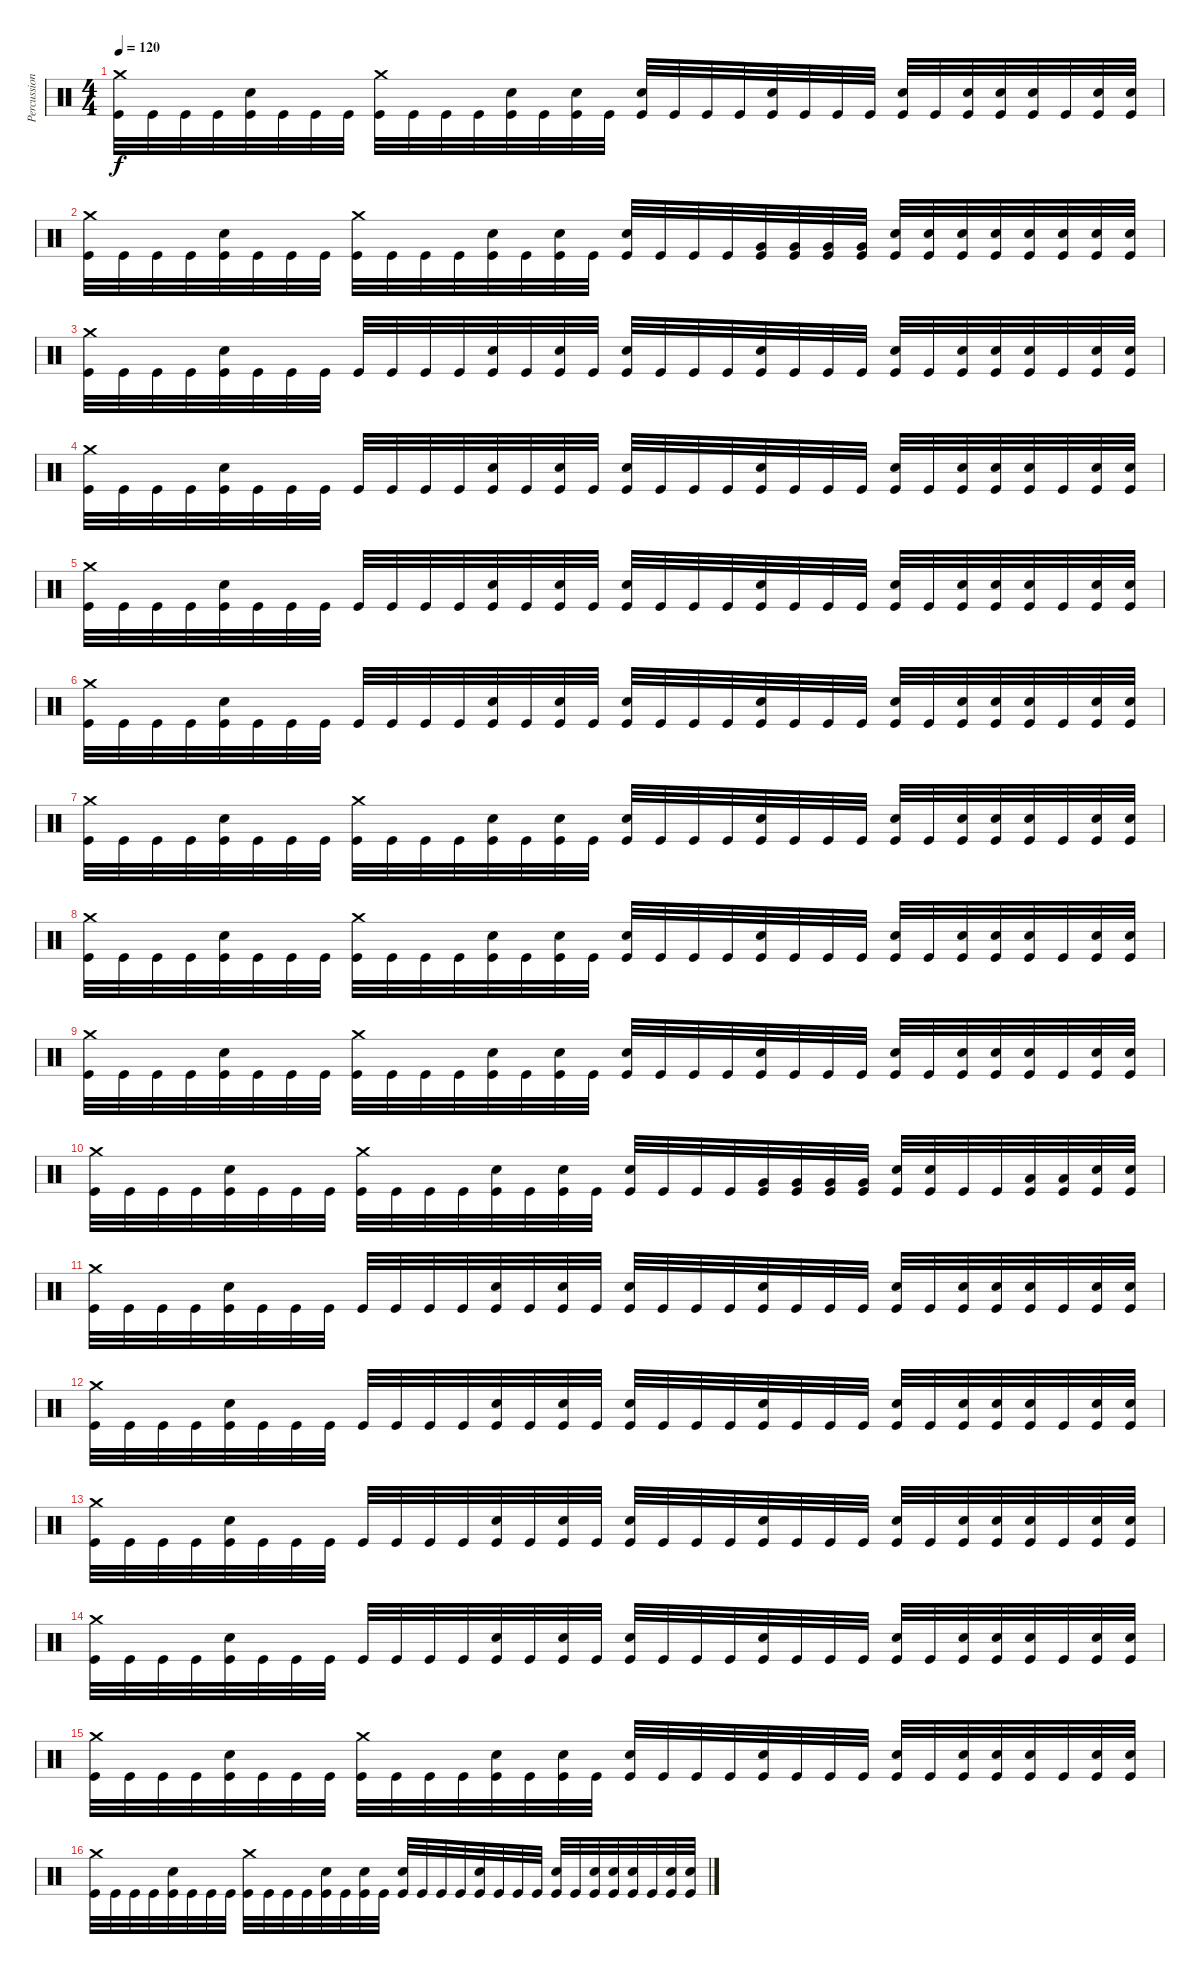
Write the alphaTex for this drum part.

\track ("Percussion" "Percussion") {instrument percussion}
\staff {score}
\articulation defaults
\ts (4 4)
\tempo 120
\clef neutral
\ks c
("Crash medium (hit)" "Kick (hit)").32{dy f} "Kick (hit)".32 "Kick (hit)".32 "Kick (hit)".32 ("Electric Snare (hit)" "Kick (hit)").32 "Kick (hit)".32 "Kick (hit)".32 "Kick (hit)".32 ("Crash medium (hit)" "Kick (hit)").32 "Kick (hit)".32 "Kick (hit)".32 "Kick (hit)".32 ("Electric Snare (hit)" "Kick (hit)").32 "Kick (hit)".32 ("Electric Snare (hit)" "Kick (hit)").32 "Kick (hit)".32 ("Electric Snare (hit)" "Kick (hit)").32 "Kick (hit)".32 "Kick (hit)".32 "Kick (hit)".32 ("Electric Snare (hit)" "Kick (hit)").32 "Kick (hit)".32 "Kick (hit)".32 "Kick (hit)".32 ("Electric Snare (hit)" "Kick (hit)").32 "Kick (hit)".32 ("Electric Snare (hit)" "Kick (hit)").32 ("Electric Snare (hit)" "Kick (hit)").32 ("Electric Snare (hit)" "Kick (hit)").32 "Kick (hit)".32 ("Electric Snare (hit)" "Kick (hit)").32 ("Electric Snare (hit)" "Kick (hit)").32 |
("Crash medium (hit)" "Kick (hit)").32 "Kick (hit)".32 "Kick (hit)".32 "Kick (hit)".32 ("Electric Snare (hit)" "Kick (hit)").32 "Kick (hit)".32 "Kick (hit)".32 "Kick (hit)".32 ("Crash medium (hit)" "Kick (hit)").32 "Kick (hit)".32 "Kick (hit)".32 "Kick (hit)".32 ("Electric Snare (hit)" "Kick (hit)").32 "Kick (hit)".32 ("Electric Snare (hit)" "Kick (hit)").32 "Kick (hit)".32 ("Electric Snare (hit)" "Kick (hit)").32 "Kick (hit)".32 "Kick (hit)".32 "Kick (hit)".32 ("Very Low Tom (hit)" "Kick (hit)").32 ("Very Low Tom (hit)" "Kick (hit)").32 ("Very Low Tom (hit)" "Kick (hit)").32 ("Very Low Tom (hit)" "Kick (hit)").32 ("Electric Snare (hit)" "Kick (hit)").32 ("Electric Snare (hit)" "Kick (hit)").32 ("Electric Snare (hit)" "Kick (hit)").32 ("Electric Snare (hit)" "Kick (hit)").32 ("Electric Snare (hit)" "Kick (hit)").32 ("Electric Snare (hit)" "Kick (hit)").32 ("Electric Snare (hit)" "Kick (hit)").32 ("Electric Snare (hit)" "Kick (hit)").32 |
("Crash medium (hit)" "Kick (hit)").32 "Kick (hit)".32 "Kick (hit)".32 "Kick (hit)".32 ("Electric Snare (hit)" "Kick (hit)").32 "Kick (hit)".32 "Kick (hit)".32 "Kick (hit)".32 "Kick (hit)".32 "Kick (hit)".32 "Kick (hit)".32 "Kick (hit)".32 ("Electric Snare (hit)" "Kick (hit)").32 "Kick (hit)".32 ("Electric Snare (hit)" "Kick (hit)").32 "Kick (hit)".32 ("Electric Snare (hit)" "Kick (hit)").32 "Kick (hit)".32 "Kick (hit)".32 "Kick (hit)".32 ("Electric Snare (hit)" "Kick (hit)").32 "Kick (hit)".32 "Kick (hit)".32 "Kick (hit)".32 ("Electric Snare (hit)" "Kick (hit)").32 "Kick (hit)".32 ("Electric Snare (hit)" "Kick (hit)").32 ("Electric Snare (hit)" "Kick (hit)").32 ("Electric Snare (hit)" "Kick (hit)").32 "Kick (hit)".32 ("Electric Snare (hit)" "Kick (hit)").32 ("Electric Snare (hit)" "Kick (hit)").32 |
("Crash medium (hit)" "Kick (hit)").32 "Kick (hit)".32 "Kick (hit)".32 "Kick (hit)".32 ("Electric Snare (hit)" "Kick (hit)").32 "Kick (hit)".32 "Kick (hit)".32 "Kick (hit)".32 "Kick (hit)".32 "Kick (hit)".32 "Kick (hit)".32 "Kick (hit)".32 ("Electric Snare (hit)" "Kick (hit)").32 "Kick (hit)".32 ("Electric Snare (hit)" "Kick (hit)").32 "Kick (hit)".32 ("Electric Snare (hit)" "Kick (hit)").32 "Kick (hit)".32 "Kick (hit)".32 "Kick (hit)".32 ("Electric Snare (hit)" "Kick (hit)").32 "Kick (hit)".32 "Kick (hit)".32 "Kick (hit)".32 ("Electric Snare (hit)" "Kick (hit)").32 "Kick (hit)".32 ("Electric Snare (hit)" "Kick (hit)").32 ("Electric Snare (hit)" "Kick (hit)").32 ("Electric Snare (hit)" "Kick (hit)").32 "Kick (hit)".32 ("Electric Snare (hit)" "Kick (hit)").32 ("Electric Snare (hit)" "Kick (hit)").32 |
("Crash medium (hit)" "Kick (hit)").32 "Kick (hit)".32 "Kick (hit)".32 "Kick (hit)".32 ("Electric Snare (hit)" "Kick (hit)").32 "Kick (hit)".32 "Kick (hit)".32 "Kick (hit)".32 "Kick (hit)".32 "Kick (hit)".32 "Kick (hit)".32 "Kick (hit)".32 ("Electric Snare (hit)" "Kick (hit)").32 "Kick (hit)".32 ("Electric Snare (hit)" "Kick (hit)").32 "Kick (hit)".32 ("Electric Snare (hit)" "Kick (hit)").32 "Kick (hit)".32 "Kick (hit)".32 "Kick (hit)".32 ("Electric Snare (hit)" "Kick (hit)").32 "Kick (hit)".32 "Kick (hit)".32 "Kick (hit)".32 ("Electric Snare (hit)" "Kick (hit)").32 "Kick (hit)".32 ("Electric Snare (hit)" "Kick (hit)").32 ("Electric Snare (hit)" "Kick (hit)").32 ("Electric Snare (hit)" "Kick (hit)").32 "Kick (hit)".32 ("Electric Snare (hit)" "Kick (hit)").32 ("Electric Snare (hit)" "Kick (hit)").32 |
("Crash medium (hit)" "Kick (hit)").32 "Kick (hit)".32 "Kick (hit)".32 "Kick (hit)".32 ("Electric Snare (hit)" "Kick (hit)").32 "Kick (hit)".32 "Kick (hit)".32 "Kick (hit)".32 "Kick (hit)".32 "Kick (hit)".32 "Kick (hit)".32 "Kick (hit)".32 ("Electric Snare (hit)" "Kick (hit)").32 "Kick (hit)".32 ("Electric Snare (hit)" "Kick (hit)").32 "Kick (hit)".32 ("Electric Snare (hit)" "Kick (hit)").32 "Kick (hit)".32 "Kick (hit)".32 "Kick (hit)".32 ("Electric Snare (hit)" "Kick (hit)").32 "Kick (hit)".32 "Kick (hit)".32 "Kick (hit)".32 ("Electric Snare (hit)" "Kick (hit)").32 "Kick (hit)".32 ("Electric Snare (hit)" "Kick (hit)").32 ("Electric Snare (hit)" "Kick (hit)").32 ("Electric Snare (hit)" "Kick (hit)").32 "Kick (hit)".32 ("Electric Snare (hit)" "Kick (hit)").32 ("Electric Snare (hit)" "Kick (hit)").32 |
("Crash medium (hit)" "Kick (hit)").32 "Kick (hit)".32 "Kick (hit)".32 "Kick (hit)".32 ("Electric Snare (hit)" "Kick (hit)").32 "Kick (hit)".32 "Kick (hit)".32 "Kick (hit)".32 ("Crash medium (hit)" "Kick (hit)").32 "Kick (hit)".32 "Kick (hit)".32 "Kick (hit)".32 ("Electric Snare (hit)" "Kick (hit)").32 "Kick (hit)".32 ("Electric Snare (hit)" "Kick (hit)").32 "Kick (hit)".32 ("Electric Snare (hit)" "Kick (hit)").32 "Kick (hit)".32 "Kick (hit)".32 "Kick (hit)".32 ("Electric Snare (hit)" "Kick (hit)").32 "Kick (hit)".32 "Kick (hit)".32 "Kick (hit)".32 ("Electric Snare (hit)" "Kick (hit)").32 "Kick (hit)".32 ("Electric Snare (hit)" "Kick (hit)").32 ("Electric Snare (hit)" "Kick (hit)").32 ("Electric Snare (hit)" "Kick (hit)").32 "Kick (hit)".32 ("Electric Snare (hit)" "Kick (hit)").32 ("Electric Snare (hit)" "Kick (hit)").32 |
("Crash medium (hit)" "Kick (hit)").32 "Kick (hit)".32 "Kick (hit)".32 "Kick (hit)".32 ("Electric Snare (hit)" "Kick (hit)").32 "Kick (hit)".32 "Kick (hit)".32 "Kick (hit)".32 ("Crash medium (hit)" "Kick (hit)").32 "Kick (hit)".32 "Kick (hit)".32 "Kick (hit)".32 ("Electric Snare (hit)" "Kick (hit)").32 "Kick (hit)".32 ("Electric Snare (hit)" "Kick (hit)").32 "Kick (hit)".32 ("Electric Snare (hit)" "Kick (hit)").32 "Kick (hit)".32 "Kick (hit)".32 "Kick (hit)".32 ("Electric Snare (hit)" "Kick (hit)").32 "Kick (hit)".32 "Kick (hit)".32 "Kick (hit)".32 ("Electric Snare (hit)" "Kick (hit)").32 "Kick (hit)".32 ("Electric Snare (hit)" "Kick (hit)").32 ("Electric Snare (hit)" "Kick (hit)").32 ("Electric Snare (hit)" "Kick (hit)").32 "Kick (hit)".32 ("Electric Snare (hit)" "Kick (hit)").32 ("Electric Snare (hit)" "Kick (hit)").32 |
("Crash medium (hit)" "Kick (hit)").32 "Kick (hit)".32 "Kick (hit)".32 "Kick (hit)".32 ("Electric Snare (hit)" "Kick (hit)").32 "Kick (hit)".32 "Kick (hit)".32 "Kick (hit)".32 ("Crash medium (hit)" "Kick (hit)").32 "Kick (hit)".32 "Kick (hit)".32 "Kick (hit)".32 ("Electric Snare (hit)" "Kick (hit)").32 "Kick (hit)".32 ("Electric Snare (hit)" "Kick (hit)").32 "Kick (hit)".32 ("Electric Snare (hit)" "Kick (hit)").32 "Kick (hit)".32 "Kick (hit)".32 "Kick (hit)".32 ("Electric Snare (hit)" "Kick (hit)").32 "Kick (hit)".32 "Kick (hit)".32 "Kick (hit)".32 ("Electric Snare (hit)" "Kick (hit)").32 "Kick (hit)".32 ("Electric Snare (hit)" "Kick (hit)").32 ("Electric Snare (hit)" "Kick (hit)").32 ("Electric Snare (hit)" "Kick (hit)").32 "Kick (hit)".32 ("Electric Snare (hit)" "Kick (hit)").32 ("Electric Snare (hit)" "Kick (hit)").32 |
("Crash medium (hit)" "Kick (hit)").32 "Kick (hit)".32 "Kick (hit)".32 "Kick (hit)".32 ("Electric Snare (hit)" "Kick (hit)").32 "Kick (hit)".32 "Kick (hit)".32 "Kick (hit)".32 ("Crash medium (hit)" "Kick (hit)").32 "Kick (hit)".32 "Kick (hit)".32 "Kick (hit)".32 ("Electric Snare (hit)" "Kick (hit)").32 "Kick (hit)".32 ("Electric Snare (hit)" "Kick (hit)").32 "Kick (hit)".32 ("Electric Snare (hit)" "Kick (hit)").32 "Kick (hit)".32 "Kick (hit)".32 "Kick (hit)".32 ("Very Low Tom (hit)" "Kick (hit)").32 ("Very Low Tom (hit)" "Kick (hit)").32 ("Very Low Tom (hit)" "Kick (hit)").32 ("Very Low Tom (hit)" "Kick (hit)").32 ("Snare (hit) 2" "Kick (hit)").32 ("Snare (hit) 2" "Kick (hit)").32 "Kick (hit)".32 "Kick (hit)".32 ("Low Floor Tom (hit)" "Kick (hit)").32 ("Low Floor Tom (hit)" "Kick (hit)").32 ("Electric Snare (hit)" "Kick (hit)").32 ("Electric Snare (hit)" "Kick (hit)").32 |
("Crash medium (hit)" "Kick (hit)").32 "Kick (hit)".32 "Kick (hit)".32 "Kick (hit)".32 ("Electric Snare (hit)" "Kick (hit)").32 "Kick (hit)".32 "Kick (hit)".32 "Kick (hit)".32 "Kick (hit)".32 "Kick (hit)".32 "Kick (hit)".32 "Kick (hit)".32 ("Electric Snare (hit)" "Kick (hit)").32 "Kick (hit)".32 ("Electric Snare (hit)" "Kick (hit)").32 "Kick (hit)".32 ("Electric Snare (hit)" "Kick (hit)").32 "Kick (hit)".32 "Kick (hit)".32 "Kick (hit)".32 ("Electric Snare (hit)" "Kick (hit)").32 "Kick (hit)".32 "Kick (hit)".32 "Kick (hit)".32 ("Electric Snare (hit)" "Kick (hit)").32 "Kick (hit)".32 ("Electric Snare (hit)" "Kick (hit)").32 ("Electric Snare (hit)" "Kick (hit)").32 ("Electric Snare (hit)" "Kick (hit)").32 "Kick (hit)".32 ("Electric Snare (hit)" "Kick (hit)").32 ("Electric Snare (hit)" "Kick (hit)").32 |
("Crash medium (hit)" "Kick (hit)").32 "Kick (hit)".32 "Kick (hit)".32 "Kick (hit)".32 ("Electric Snare (hit)" "Kick (hit)").32 "Kick (hit)".32 "Kick (hit)".32 "Kick (hit)".32 "Kick (hit)".32 "Kick (hit)".32 "Kick (hit)".32 "Kick (hit)".32 ("Electric Snare (hit)" "Kick (hit)").32 "Kick (hit)".32 ("Electric Snare (hit)" "Kick (hit)").32 "Kick (hit)".32 ("Electric Snare (hit)" "Kick (hit)").32 "Kick (hit)".32 "Kick (hit)".32 "Kick (hit)".32 ("Electric Snare (hit)" "Kick (hit)").32 "Kick (hit)".32 "Kick (hit)".32 "Kick (hit)".32 ("Electric Snare (hit)" "Kick (hit)").32 "Kick (hit)".32 ("Electric Snare (hit)" "Kick (hit)").32 ("Electric Snare (hit)" "Kick (hit)").32 ("Electric Snare (hit)" "Kick (hit)").32 "Kick (hit)".32 ("Electric Snare (hit)" "Kick (hit)").32 ("Electric Snare (hit)" "Kick (hit)").32 |
("Crash medium (hit)" "Kick (hit)").32 "Kick (hit)".32 "Kick (hit)".32 "Kick (hit)".32 ("Electric Snare (hit)" "Kick (hit)").32 "Kick (hit)".32 "Kick (hit)".32 "Kick (hit)".32 "Kick (hit)".32 "Kick (hit)".32 "Kick (hit)".32 "Kick (hit)".32 ("Electric Snare (hit)" "Kick (hit)").32 "Kick (hit)".32 ("Electric Snare (hit)" "Kick (hit)").32 "Kick (hit)".32 ("Electric Snare (hit)" "Kick (hit)").32 "Kick (hit)".32 "Kick (hit)".32 "Kick (hit)".32 ("Electric Snare (hit)" "Kick (hit)").32 "Kick (hit)".32 "Kick (hit)".32 "Kick (hit)".32 ("Electric Snare (hit)" "Kick (hit)").32 "Kick (hit)".32 ("Electric Snare (hit)" "Kick (hit)").32 ("Electric Snare (hit)" "Kick (hit)").32 ("Electric Snare (hit)" "Kick (hit)").32 "Kick (hit)".32 ("Electric Snare (hit)" "Kick (hit)").32 ("Electric Snare (hit)" "Kick (hit)").32 |
("Crash medium (hit)" "Kick (hit)").32 "Kick (hit)".32 "Kick (hit)".32 "Kick (hit)".32 ("Electric Snare (hit)" "Kick (hit)").32 "Kick (hit)".32 "Kick (hit)".32 "Kick (hit)".32 "Kick (hit)".32 "Kick (hit)".32 "Kick (hit)".32 "Kick (hit)".32 ("Electric Snare (hit)" "Kick (hit)").32 "Kick (hit)".32 ("Electric Snare (hit)" "Kick (hit)").32 "Kick (hit)".32 ("Electric Snare (hit)" "Kick (hit)").32 "Kick (hit)".32 "Kick (hit)".32 "Kick (hit)".32 ("Electric Snare (hit)" "Kick (hit)").32 "Kick (hit)".32 "Kick (hit)".32 "Kick (hit)".32 ("Electric Snare (hit)" "Kick (hit)").32 "Kick (hit)".32 ("Electric Snare (hit)" "Kick (hit)").32 ("Electric Snare (hit)" "Kick (hit)").32 ("Electric Snare (hit)" "Kick (hit)").32 "Kick (hit)".32 ("Electric Snare (hit)" "Kick (hit)").32 ("Electric Snare (hit)" "Kick (hit)").32 |
("Crash medium (hit)" "Kick (hit)").32 "Kick (hit)".32 "Kick (hit)".32 "Kick (hit)".32 ("Electric Snare (hit)" "Kick (hit)").32 "Kick (hit)".32 "Kick (hit)".32 "Kick (hit)".32 ("Crash medium (hit)" "Kick (hit)").32 "Kick (hit)".32 "Kick (hit)".32 "Kick (hit)".32 ("Electric Snare (hit)" "Kick (hit)").32 "Kick (hit)".32 ("Electric Snare (hit)" "Kick (hit)").32 "Kick (hit)".32 ("Electric Snare (hit)" "Kick (hit)").32 "Kick (hit)".32 "Kick (hit)".32 "Kick (hit)".32 ("Electric Snare (hit)" "Kick (hit)").32 "Kick (hit)".32 "Kick (hit)".32 "Kick (hit)".32 ("Electric Snare (hit)" "Kick (hit)").32 "Kick (hit)".32 ("Electric Snare (hit)" "Kick (hit)").32 ("Electric Snare (hit)" "Kick (hit)").32 ("Electric Snare (hit)" "Kick (hit)").32 "Kick (hit)".32 ("Electric Snare (hit)" "Kick (hit)").32 ("Electric Snare (hit)" "Kick (hit)").32 |
("Crash medium (hit)" "Kick (hit)").32 "Kick (hit)".32 "Kick (hit)".32 "Kick (hit)".32 ("Electric Snare (hit)" "Kick (hit)").32 "Kick (hit)".32 "Kick (hit)".32 "Kick (hit)".32 ("Crash medium (hit)" "Kick (hit)").32 "Kick (hit)".32 "Kick (hit)".32 "Kick (hit)".32 ("Electric Snare (hit)" "Kick (hit)").32 "Kick (hit)".32 ("Electric Snare (hit)" "Kick (hit)").32 "Kick (hit)".32 ("Electric Snare (hit)" "Kick (hit)").32 "Kick (hit)".32 "Kick (hit)".32 "Kick (hit)".32 ("Electric Snare (hit)" "Kick (hit)").32 "Kick (hit)".32 "Kick (hit)".32 "Kick (hit)".32 ("Electric Snare (hit)" "Kick (hit)").32 "Kick (hit)".32 ("Electric Snare (hit)" "Kick (hit)").32 ("Electric Snare (hit)" "Kick (hit)").32 ("Electric Snare (hit)" "Kick (hit)").32 "Kick (hit)".32 ("Electric Snare (hit)" "Kick (hit)").32 ("Electric Snare (hit)" "Kick (hit)").32
